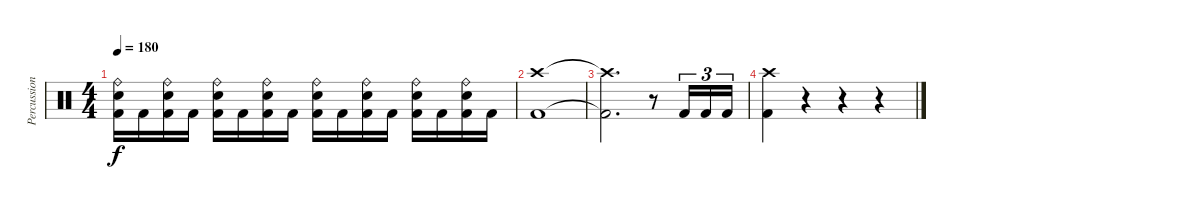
\track ("Percussion" "Percussion") {instrument percussion}
\staff {score}
\articulation defaults
\ts (4 4)
\tempo 180
\clef neutral
\ks c
("Ride (bell)" "Electric Snare (hit)" "Kick (hit) 2").16{dy f} "Kick (hit) 2".16 ("Ride (bell)" "Electric Snare (hit)" "Kick (hit) 2").16 "Kick (hit) 2".16 ("Ride (bell)" "Electric Snare (hit)" "Kick (hit) 2").16 "Kick (hit) 2".16 ("Ride (bell)" "Electric Snare (hit)" "Kick (hit) 2").16 "Kick (hit) 2".16 ("Ride (bell)" "Electric Snare (hit)" "Kick (hit) 2").16 "Kick (hit) 2".16 ("Ride (bell)" "Electric Snare (hit)" "Kick (hit) 2").16 "Kick (hit) 2".16 ("Ride (bell)" "Electric Snare (hit)" "Kick (hit) 2").16 "Kick (hit) 2".16 ("Ride (bell)" "Electric Snare (hit)" "Kick (hit) 2").16 "Kick (hit) 2".16 |
("Crash high (hit)" "Kick (hit) 2").1 |
("Crash high (hit)"{t} "Kick (hit) 2"{t}).2{d} r.8 "Kick (hit) 2".16{tu (3 2)} "Kick (hit) 2".16{tu (3 2)} "Kick (hit) 2".16{tu (3 2)} |
("Crash high (hit)" "Kick (hit) 2").4 r.4 r.4 r.4
